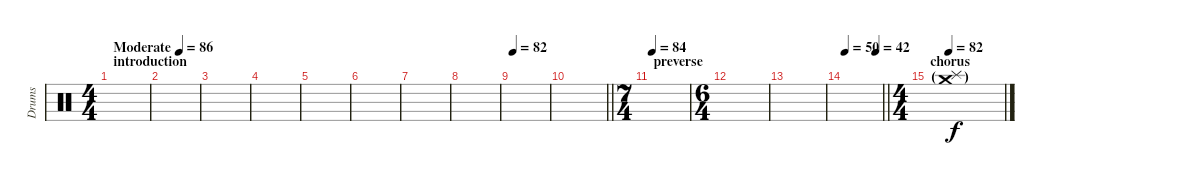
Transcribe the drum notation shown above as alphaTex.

\track ("Drums" "Drums") {instrument percussion}
\staff {score}
\articulation defaults
\ts (4 4)
\section ("" "introduction")
\tempo (86 "Moderate")
\clef neutral
\ks c
|
|
|
|
|
|
|
|
\tempo 82
|
\barLineRight lightlight
|
\ts (7 4)
\section ("" "preverse")
\tempo 84
|
\ts (6 4)
|
|
\tempo 50
\tempo (42 0.8333333333333334)
\barLineRight lightlight
|
\ts (4 4)
\section ("" "chorus")
\tempo 82
("Crash medium (hit)"{g} "Splash (hit)"{g}).1
